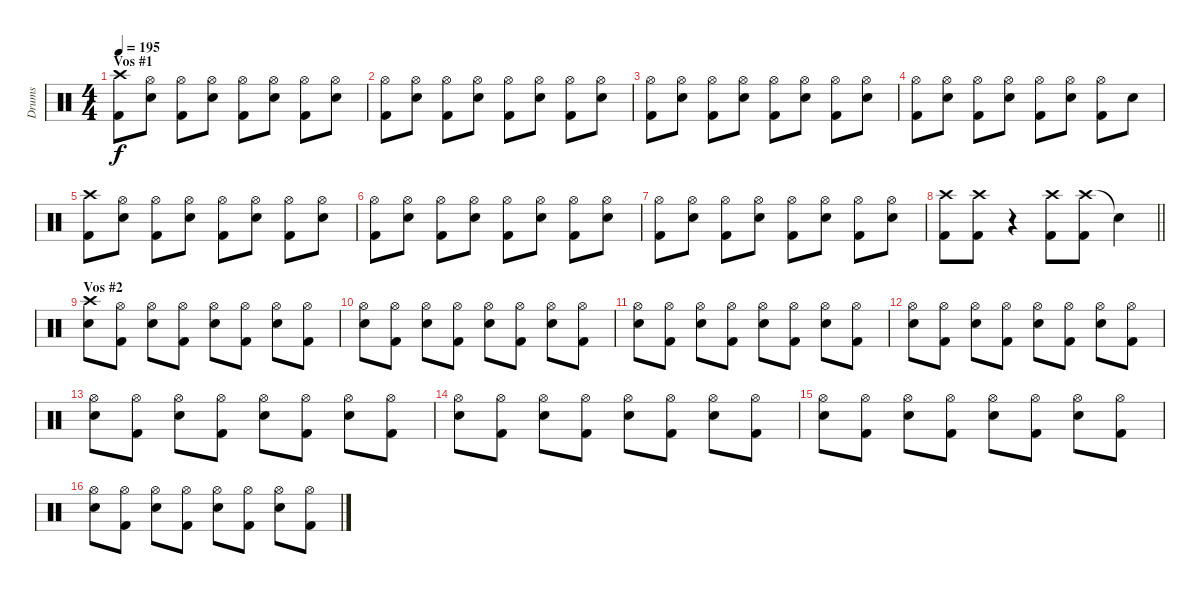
\track ("Drums" "Drums") {instrument percussion}
\staff {score}
\articulation defaults
\ts (4 4)
\section ("" "Vos #1")
\tempo 195
\clef neutral
\ks c
("Crash high (hit)" "Kick (hit) 2").8{dy f} ("Hi-Hat (open)" "Snare (hit) 2").8 ("Hi-Hat (open)" "Kick (hit) 2").8 ("Hi-Hat (open)" "Snare (hit) 2").8 ("Hi-Hat (open)" "Kick (hit) 2").8 ("Hi-Hat (open)" "Snare (hit) 2").8 ("Hi-Hat (open)" "Kick (hit) 2").8 ("Hi-Hat (open)" "Snare (hit) 2").8 |
("Hi-Hat (open)" "Kick (hit) 2").8 ("Hi-Hat (open)" "Snare (hit) 2").8 ("Hi-Hat (open)" "Kick (hit) 2").8 ("Hi-Hat (open)" "Snare (hit) 2").8 ("Hi-Hat (open)" "Kick (hit) 2").8 ("Hi-Hat (open)" "Snare (hit) 2").8 ("Hi-Hat (open)" "Kick (hit) 2").8 ("Hi-Hat (open)" "Snare (hit) 2").8 |
("Hi-Hat (open)" "Kick (hit) 2").8 ("Hi-Hat (open)" "Snare (hit) 2").8 ("Hi-Hat (open)" "Kick (hit) 2").8 ("Hi-Hat (open)" "Snare (hit) 2").8 ("Hi-Hat (open)" "Kick (hit) 2").8 ("Hi-Hat (open)" "Snare (hit) 2").8 ("Hi-Hat (open)" "Kick (hit) 2").8 ("Hi-Hat (open)" "Snare (hit) 2").8 |
("Hi-Hat (open)" "Kick (hit) 2").8 ("Hi-Hat (open)" "Snare (hit) 2").8 ("Hi-Hat (open)" "Kick (hit) 2").8 ("Hi-Hat (open)" "Snare (hit) 2").8 ("Hi-Hat (open)" "Kick (hit) 2").8 ("Hi-Hat (open)" "Snare (hit) 2").8 ("Hi-Hat (open)" "Kick (hit) 2").8 "Snare (hit) 2".8 |
("Crash high (hit)" "Kick (hit) 2").8 ("Hi-Hat (open)" "Snare (hit) 2").8 ("Hi-Hat (open)" "Kick (hit) 2").8 ("Hi-Hat (open)" "Snare (hit) 2").8 ("Hi-Hat (open)" "Kick (hit) 2").8 ("Hi-Hat (open)" "Snare (hit) 2").8 ("Hi-Hat (open)" "Kick (hit) 2").8 ("Hi-Hat (open)" "Snare (hit) 2").8 |
("Hi-Hat (open)" "Kick (hit) 2").8 ("Hi-Hat (open)" "Snare (hit) 2").8 ("Hi-Hat (open)" "Kick (hit) 2").8 ("Hi-Hat (open)" "Snare (hit) 2").8 ("Hi-Hat (open)" "Kick (hit) 2").8 ("Hi-Hat (open)" "Snare (hit) 2").8 ("Hi-Hat (open)" "Kick (hit) 2").8 ("Hi-Hat (open)" "Snare (hit) 2").8 |
("Hi-Hat (open)" "Kick (hit) 2").8 ("Hi-Hat (open)" "Snare (hit) 2").8 ("Hi-Hat (open)" "Kick (hit) 2").8 ("Hi-Hat (open)" "Snare (hit) 2").8 ("Hi-Hat (open)" "Kick (hit) 2").8 ("Hi-Hat (open)" "Snare (hit) 2").8 ("Hi-Hat (open)" "Kick (hit) 2").8 ("Hi-Hat (open)" "Snare (hit) 2").8 |
\barLineRight lightlight
("Crash high (hit)" "Kick (hit) 2").8 ("Crash high (hit)" "Kick (hit) 2").8 r.4 ("Crash high (hit)" "Kick (hit) 2").8 ("Crash high (hit)" "Kick (hit) 2").8 "Snare (hit)"{t}.4 |
\section ("" "Vos #2")
("Crash high (hit)" "Snare (hit) 2").8 ("Hi-Hat (open)" "Kick (hit) 2").8 ("Hi-Hat (open)" "Snare (hit) 2").8 ("Hi-Hat (open)" "Kick (hit) 2").8 ("Hi-Hat (open)" "Snare (hit) 2").8 ("Hi-Hat (open)" "Kick (hit) 2").8 ("Hi-Hat (open)" "Snare (hit) 2").8 ("Hi-Hat (open)" "Kick (hit) 2").8 |
("Hi-Hat (open)" "Snare (hit) 2").8 ("Hi-Hat (open)" "Kick (hit) 2").8 ("Hi-Hat (open)" "Snare (hit) 2").8 ("Hi-Hat (open)" "Kick (hit) 2").8 ("Hi-Hat (open)" "Snare (hit) 2").8 ("Hi-Hat (open)" "Kick (hit) 2").8 ("Hi-Hat (open)" "Snare (hit) 2").8 ("Hi-Hat (open)" "Kick (hit) 2").8 |
("Hi-Hat (open)" "Snare (hit) 2").8 ("Hi-Hat (open)" "Kick (hit) 2").8 ("Hi-Hat (open)" "Snare (hit) 2").8 ("Hi-Hat (open)" "Kick (hit) 2").8 ("Hi-Hat (open)" "Snare (hit) 2").8 ("Hi-Hat (open)" "Kick (hit) 2").8 ("Hi-Hat (open)" "Snare (hit) 2").8 ("Hi-Hat (open)" "Kick (hit) 2").8 |
("Hi-Hat (open)" "Snare (hit) 2").8 ("Hi-Hat (open)" "Kick (hit) 2").8 ("Hi-Hat (open)" "Snare (hit) 2").8 ("Hi-Hat (open)" "Kick (hit) 2").8 ("Hi-Hat (open)" "Snare (hit) 2").8 ("Hi-Hat (open)" "Kick (hit) 2").8 ("Hi-Hat (open)" "Snare (hit) 2").8 ("Hi-Hat (open)" "Kick (hit) 2").8 |
("Hi-Hat (open)" "Snare (hit) 2").8 ("Hi-Hat (open)" "Kick (hit) 2").8 ("Hi-Hat (open)" "Snare (hit) 2").8 ("Hi-Hat (open)" "Kick (hit) 2").8 ("Hi-Hat (open)" "Snare (hit) 2").8 ("Hi-Hat (open)" "Kick (hit) 2").8 ("Hi-Hat (open)" "Snare (hit) 2").8 ("Hi-Hat (open)" "Kick (hit) 2").8 |
("Hi-Hat (open)" "Snare (hit) 2").8 ("Hi-Hat (open)" "Kick (hit) 2").8 ("Hi-Hat (open)" "Snare (hit) 2").8 ("Hi-Hat (open)" "Kick (hit) 2").8 ("Hi-Hat (open)" "Snare (hit) 2").8 ("Hi-Hat (open)" "Kick (hit) 2").8 ("Hi-Hat (open)" "Snare (hit) 2").8 ("Hi-Hat (open)" "Kick (hit) 2").8 |
("Hi-Hat (open)" "Snare (hit) 2").8 ("Hi-Hat (open)" "Kick (hit) 2").8 ("Hi-Hat (open)" "Snare (hit) 2").8 ("Hi-Hat (open)" "Kick (hit) 2").8 ("Hi-Hat (open)" "Snare (hit) 2").8 ("Hi-Hat (open)" "Kick (hit) 2").8 ("Hi-Hat (open)" "Snare (hit) 2").8 ("Hi-Hat (open)" "Kick (hit) 2").8 |
("Hi-Hat (open)" "Snare (hit) 2").8 ("Hi-Hat (open)" "Kick (hit) 2").8 ("Hi-Hat (open)" "Snare (hit) 2").8 ("Hi-Hat (open)" "Kick (hit) 2").8 ("Hi-Hat (open)" "Snare (hit) 2").8 ("Hi-Hat (open)" "Kick (hit) 2").8 ("Hi-Hat (open)" "Snare (hit) 2").8 ("Hi-Hat (open)" "Kick (hit) 2").8
